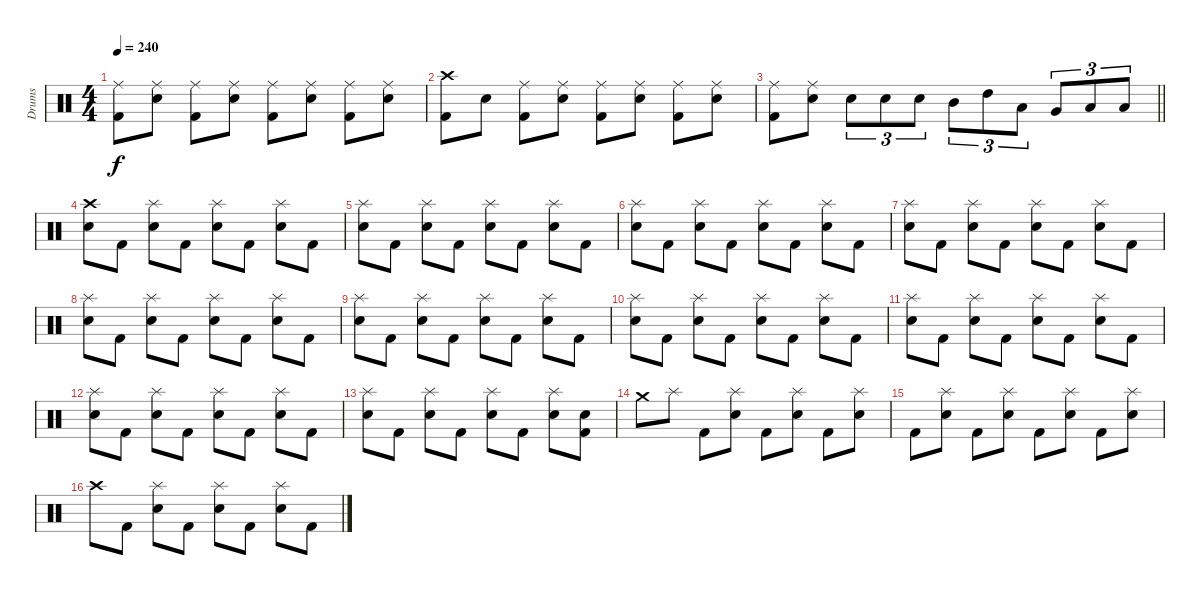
\track ("Drums" "Drums") {instrument percussion}
\staff {score}
\articulation defaults
\ts (4 4)
\tempo 240
\clef neutral
\ks c
("Ride (middle)" "Kick (hit) 2").8{dy f} ("Ride (middle)" "Electric Snare (hit)").8 ("Ride (middle)" "Kick (hit) 2").8 ("Ride (middle)" "Electric Snare (hit)").8 ("Ride (middle)" "Kick (hit) 2").8 ("Ride (middle)" "Electric Snare (hit)").8 ("Ride (middle)" "Kick (hit) 2").8 ("Ride (middle)" "Electric Snare (hit)").8 |
("Crash high (hit)" "Kick (hit) 2").8 "Electric Snare (hit)".8 ("Ride (middle)" "Kick (hit) 2").8 ("Ride (middle)" "Electric Snare (hit)").8 ("Ride (middle)" "Kick (hit) 2").8 ("Ride (middle)" "Electric Snare (hit)").8 ("Ride (middle)" "Kick (hit) 2").8 ("Ride (middle)" "Electric Snare (hit)").8 |
\barLineRight lightlight
("Ride (middle)" "Kick (hit) 2").8 ("Ride (middle)" "Electric Snare (hit)").8 "Electric Snare (hit)".8{tu (3 2)} "Electric Snare (hit)".8{tu (3 2)} "Electric Snare (hit)".8{tu (3 2)} "Mid Tom (hit)".8{tu (3 2)} "High Tom (hit)".8{tu (3 2)} "Low Tom (hit)".8{tu (3 2)} "Very Low Tom (hit)".8{tu (3 2)} "Low Tom (hit)".8{tu (3 2)} "Low Floor Tom (hit)".8{tu (3 2)} |
("Crash high (hit)" "Electric Snare (hit)").8 "Kick (hit) 2".8 ("Splash (hit)" "Electric Snare (hit)").8 "Kick (hit) 2".8 ("Splash (hit)" "Electric Snare (hit)").8 "Kick (hit) 2".8 ("Splash (hit)" "Electric Snare (hit)").8 "Kick (hit) 2".8 |
("Splash (hit)" "Electric Snare (hit)").8 "Kick (hit) 2".8 ("Splash (hit)" "Electric Snare (hit)").8 "Kick (hit) 2".8 ("Splash (hit)" "Electric Snare (hit)").8 "Kick (hit) 2".8 ("Splash (hit)" "Electric Snare (hit)").8 "Kick (hit) 2".8 |
("Splash (hit)" "Electric Snare (hit)").8 "Kick (hit) 2".8 ("Splash (hit)" "Electric Snare (hit)").8 "Kick (hit) 2".8 ("Splash (hit)" "Electric Snare (hit)").8 "Kick (hit) 2".8 ("Splash (hit)" "Electric Snare (hit)").8 "Kick (hit) 2".8 |
("Splash (hit)" "Electric Snare (hit)").8 "Kick (hit) 2".8 ("Splash (hit)" "Electric Snare (hit)").8 "Kick (hit) 2".8 ("Splash (hit)" "Electric Snare (hit)").8 "Kick (hit) 2".8 ("Splash (hit)" "Electric Snare (hit)").8 "Kick (hit) 2".8 |
("Splash (hit)" "Electric Snare (hit)").8 "Kick (hit) 2".8 ("Splash (hit)" "Electric Snare (hit)").8 "Kick (hit) 2".8 ("Splash (hit)" "Electric Snare (hit)").8 "Kick (hit) 2".8 ("Splash (hit)" "Electric Snare (hit)").8 "Kick (hit) 2".8 |
("Splash (hit)" "Electric Snare (hit)").8 "Kick (hit) 2".8 ("Splash (hit)" "Electric Snare (hit)").8 "Kick (hit) 2".8 ("Splash (hit)" "Electric Snare (hit)").8 "Kick (hit) 2".8 ("Splash (hit)" "Electric Snare (hit)").8 "Kick (hit) 2".8 |
("Splash (hit)" "Electric Snare (hit)").8 "Kick (hit) 2".8 ("Splash (hit)" "Electric Snare (hit)").8 "Kick (hit) 2".8 ("Splash (hit)" "Electric Snare (hit)").8 "Kick (hit) 2".8 ("Splash (hit)" "Electric Snare (hit)").8 "Kick (hit) 2".8 |
("Splash (hit)" "Electric Snare (hit)").8 "Kick (hit) 2".8 ("Splash (hit)" "Electric Snare (hit)").8 "Kick (hit) 2".8 ("Splash (hit)" "Electric Snare (hit)").8 "Kick (hit) 2".8 ("Splash (hit)" "Electric Snare (hit)").8 "Kick (hit) 2".8 |
("Splash (hit)" "Electric Snare (hit)").8 "Kick (hit) 2".8 ("Splash (hit)" "Electric Snare (hit)").8 "Kick (hit) 2".8 ("Splash (hit)" "Electric Snare (hit)").8 "Kick (hit) 2".8 ("Splash (hit)" "Electric Snare (hit)").8 "Kick (hit) 2".8 |
("Splash (hit)" "Electric Snare (hit)").8 "Kick (hit) 2".8 ("Splash (hit)" "Electric Snare (hit)").8 "Kick (hit) 2".8 ("Splash (hit)" "Electric Snare (hit)").8 "Kick (hit) 2".8 ("Splash (hit)" "Electric Snare (hit)").8 ("Electric Snare (hit)" "Kick (hit) 2").8 |
"Crash medium (hit)".8 "Splash (hit)".8 "Kick (hit) 2".8 ("Splash (hit)" "Electric Snare (hit)").8 "Kick (hit) 2".8 ("Splash (hit)" "Electric Snare (hit)").8 "Kick (hit) 2".8 ("Splash (hit)" "Electric Snare (hit)").8 |
"Kick (hit) 2".8 ("Splash (hit)" "Electric Snare (hit)").8 "Kick (hit) 2".8 ("Splash (hit)" "Electric Snare (hit)").8 "Kick (hit) 2".8 ("Splash (hit)" "Electric Snare (hit)").8 "Kick (hit) 2".8 ("Splash (hit)" "Electric Snare (hit)").8 |
"Crash high (hit)".8 "Kick (hit) 2".8 ("Splash (hit)" "Electric Snare (hit)").8 "Kick (hit) 2".8 ("Splash (hit)" "Electric Snare (hit)").8 "Kick (hit) 2".8 ("Splash (hit)" "Electric Snare (hit)").8 "Kick (hit) 2".8
